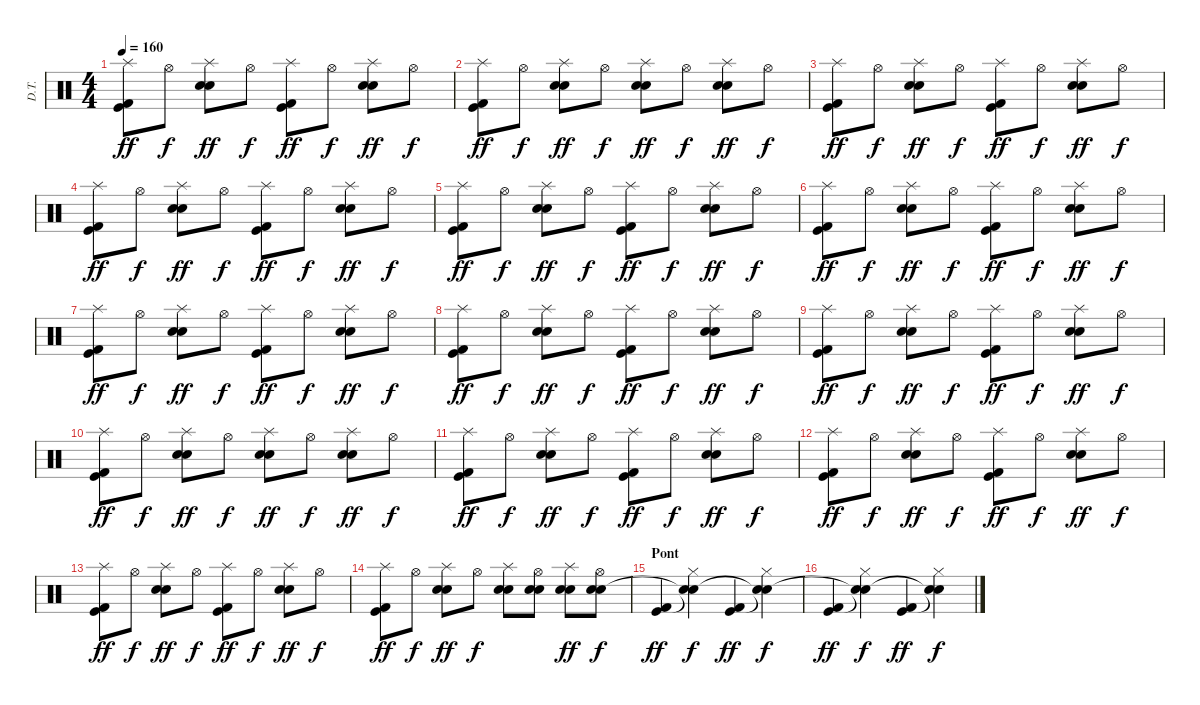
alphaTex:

\track ("D.T." "D.T.") {instrument percussion}
\staff {score}
\articulation defaults
\ts (4 4)
\tempo 160
\clef neutral
\ks c
("Splash (hit)" "Kick (hit)" "Kick (hit) 2").8{dy ff} "Hi-Hat (open)".8{dy f} ("Splash (hit)" "Snare (hit) 2" "Electric Snare (hit)").8{dy ff} "Hi-Hat (open)".8{dy f} ("Splash (hit)" "Kick (hit)" "Kick (hit) 2").8{dy ff} "Hi-Hat (open)".8{dy f} ("Splash (hit)" "Snare (hit) 2" "Electric Snare (hit)").8{dy ff} "Hi-Hat (open)".8{dy f} |
("Splash (hit)" "Kick (hit)" "Kick (hit) 2").8{dy ff} "Hi-Hat (open)".8{dy f} ("Splash (hit)" "Snare (hit) 2" "Electric Snare (hit)").8{dy ff} "Hi-Hat (open)".8{dy f} ("Splash (hit)" "Snare (hit) 2" "Electric Snare (hit)").8{dy ff} "Hi-Hat (open)".8{dy f} ("Splash (hit)" "Snare (hit) 2" "Electric Snare (hit)").8{dy ff} "Hi-Hat (open)".8{dy f} |
("Splash (hit)" "Kick (hit)" "Kick (hit) 2").8{dy ff} "Hi-Hat (open)".8{dy f} ("Splash (hit)" "Snare (hit) 2" "Electric Snare (hit)").8{dy ff} "Hi-Hat (open)".8{dy f} ("Splash (hit)" "Kick (hit)" "Kick (hit) 2").8{dy ff} "Hi-Hat (open)".8{dy f} ("Splash (hit)" "Snare (hit) 2" "Electric Snare (hit)").8{dy ff} "Hi-Hat (open)".8{dy f} |
("Splash (hit)" "Kick (hit)" "Kick (hit) 2").8{dy ff} "Hi-Hat (open)".8{dy f} ("Splash (hit)" "Snare (hit) 2" "Electric Snare (hit)").8{dy ff} "Hi-Hat (open)".8{dy f} ("Splash (hit)" "Kick (hit)" "Kick (hit) 2").8{dy ff} "Hi-Hat (open)".8{dy f} ("Splash (hit)" "Snare (hit) 2" "Electric Snare (hit)").8{dy ff} "Hi-Hat (open)".8{dy f} |
("Splash (hit)" "Kick (hit)" "Kick (hit) 2").8{dy ff} "Hi-Hat (open)".8{dy f} ("Splash (hit)" "Snare (hit) 2" "Electric Snare (hit)").8{dy ff} "Hi-Hat (open)".8{dy f} ("Splash (hit)" "Kick (hit)" "Kick (hit) 2").8{dy ff} "Hi-Hat (open)".8{dy f} ("Splash (hit)" "Snare (hit) 2" "Electric Snare (hit)").8{dy ff} "Hi-Hat (open)".8{dy f} |
("Splash (hit)" "Kick (hit)" "Kick (hit) 2").8{dy ff} "Hi-Hat (open)".8{dy f} ("Splash (hit)" "Snare (hit) 2" "Electric Snare (hit)").8{dy ff} "Hi-Hat (open)".8{dy f} ("Splash (hit)" "Kick (hit)" "Kick (hit) 2").8{dy ff} "Hi-Hat (open)".8{dy f} ("Splash (hit)" "Snare (hit) 2" "Electric Snare (hit)").8{dy ff} "Hi-Hat (open)".8{dy f} |
("Splash (hit)" "Kick (hit)" "Kick (hit) 2").8{dy ff} "Hi-Hat (open)".8{dy f} ("Splash (hit)" "Snare (hit) 2" "Electric Snare (hit)").8{dy ff} "Hi-Hat (open)".8{dy f} ("Splash (hit)" "Kick (hit)" "Kick (hit) 2").8{dy ff} "Hi-Hat (open)".8{dy f} ("Splash (hit)" "Snare (hit) 2" "Electric Snare (hit)").8{dy ff} "Hi-Hat (open)".8{dy f} |
("Splash (hit)" "Kick (hit)" "Kick (hit) 2").8{dy ff} "Hi-Hat (open)".8{dy f} ("Splash (hit)" "Snare (hit) 2" "Electric Snare (hit)").8{dy ff} "Hi-Hat (open)".8{dy f} ("Splash (hit)" "Kick (hit)" "Kick (hit) 2").8{dy ff} "Hi-Hat (open)".8{dy f} ("Splash (hit)" "Snare (hit) 2" "Electric Snare (hit)").8{dy ff} "Hi-Hat (open)".8{dy f} |
("Splash (hit)" "Kick (hit)" "Kick (hit) 2").8{dy ff} "Hi-Hat (open)".8{dy f} ("Splash (hit)" "Snare (hit) 2" "Electric Snare (hit)").8{dy ff} "Hi-Hat (open)".8{dy f} ("Splash (hit)" "Kick (hit)" "Kick (hit) 2").8{dy ff} "Hi-Hat (open)".8{dy f} ("Splash (hit)" "Snare (hit) 2" "Electric Snare (hit)").8{dy ff} "Hi-Hat (open)".8{dy f} |
("Splash (hit)" "Kick (hit)" "Kick (hit) 2").8{dy ff} "Hi-Hat (open)".8{dy f} ("Splash (hit)" "Snare (hit) 2" "Electric Snare (hit)").8{dy ff} "Hi-Hat (open)".8{dy f} ("Splash (hit)" "Snare (hit) 2" "Electric Snare (hit)").8{dy ff} "Hi-Hat (open)".8{dy f} ("Splash (hit)" "Snare (hit) 2" "Electric Snare (hit)").8{dy ff} "Hi-Hat (open)".8{dy f} |
("Splash (hit)" "Kick (hit)" "Kick (hit) 2").8{dy ff} "Hi-Hat (open)".8{dy f} ("Splash (hit)" "Snare (hit) 2" "Electric Snare (hit)").8{dy ff} "Hi-Hat (open)".8{dy f} ("Splash (hit)" "Kick (hit)" "Kick (hit) 2").8{dy ff} "Hi-Hat (open)".8{dy f} ("Splash (hit)" "Snare (hit) 2" "Electric Snare (hit)").8{dy ff} "Hi-Hat (open)".8{dy f} |
("Splash (hit)" "Kick (hit)" "Kick (hit) 2").8{dy ff} "Hi-Hat (open)".8{dy f} ("Splash (hit)" "Snare (hit) 2" "Electric Snare (hit)").8{dy ff} "Hi-Hat (open)".8{dy f} ("Splash (hit)" "Kick (hit)" "Kick (hit) 2").8{dy ff} "Hi-Hat (open)".8{dy f} ("Splash (hit)" "Snare (hit) 2" "Electric Snare (hit)").8{dy ff} "Hi-Hat (open)".8{dy f} |
("Splash (hit)" "Kick (hit)" "Kick (hit) 2").8{dy ff} "Hi-Hat (open)".8{dy f} ("Splash (hit)" "Snare (hit) 2" "Electric Snare (hit)").8{dy ff} "Hi-Hat (open)".8{dy f} ("Splash (hit)" "Kick (hit)" "Kick (hit) 2").8{dy ff} "Hi-Hat (open)".8{dy f} ("Splash (hit)" "Snare (hit) 2" "Electric Snare (hit)").8{dy ff} "Hi-Hat (open)".8{dy f} |
("Splash (hit)" "Kick (hit)" "Kick (hit) 2").8{dy ff} "Hi-Hat (open)".8{dy f} ("Splash (hit)" "Snare (hit) 2" "Electric Snare (hit)").8{dy ff} "Hi-Hat (open)".8{dy f} ("Splash (hit)" "Snare (hit) 2" "Electric Snare (hit)").8 ("Hi-Hat (open)" "Snare (hit) 2" "Electric Snare (hit)").8 ("Splash (hit)" "Snare (hit) 2" "Electric Snare (hit)").8{dy ff} ("Hi-Hat (open)" "Snare (hit) 2" "Electric Snare (hit)").8{dy f} |
\section ("" "Pont")
("Kick (hit)" "Kick (hit) 2").4{dy ff} ("Hi-Hat (closed)" "Snare (hit)"{t} "Snare (hit)"{t}).4{dy f} ("Kick (hit)" "Kick (hit) 2").4{dy ff} ("Hi-Hat (closed)" "Snare (hit)"{t} "Snare (hit)"{t}).4{dy f} |
("Kick (hit)" "Kick (hit) 2").4{dy ff} ("Hi-Hat (closed)" "Snare (hit)"{t} "Snare (hit)"{t}).4{dy f} ("Kick (hit)" "Kick (hit) 2").4{dy ff} ("Hi-Hat (closed)" "Snare (hit)"{t} "Snare (hit)"{t}).4{dy f}
